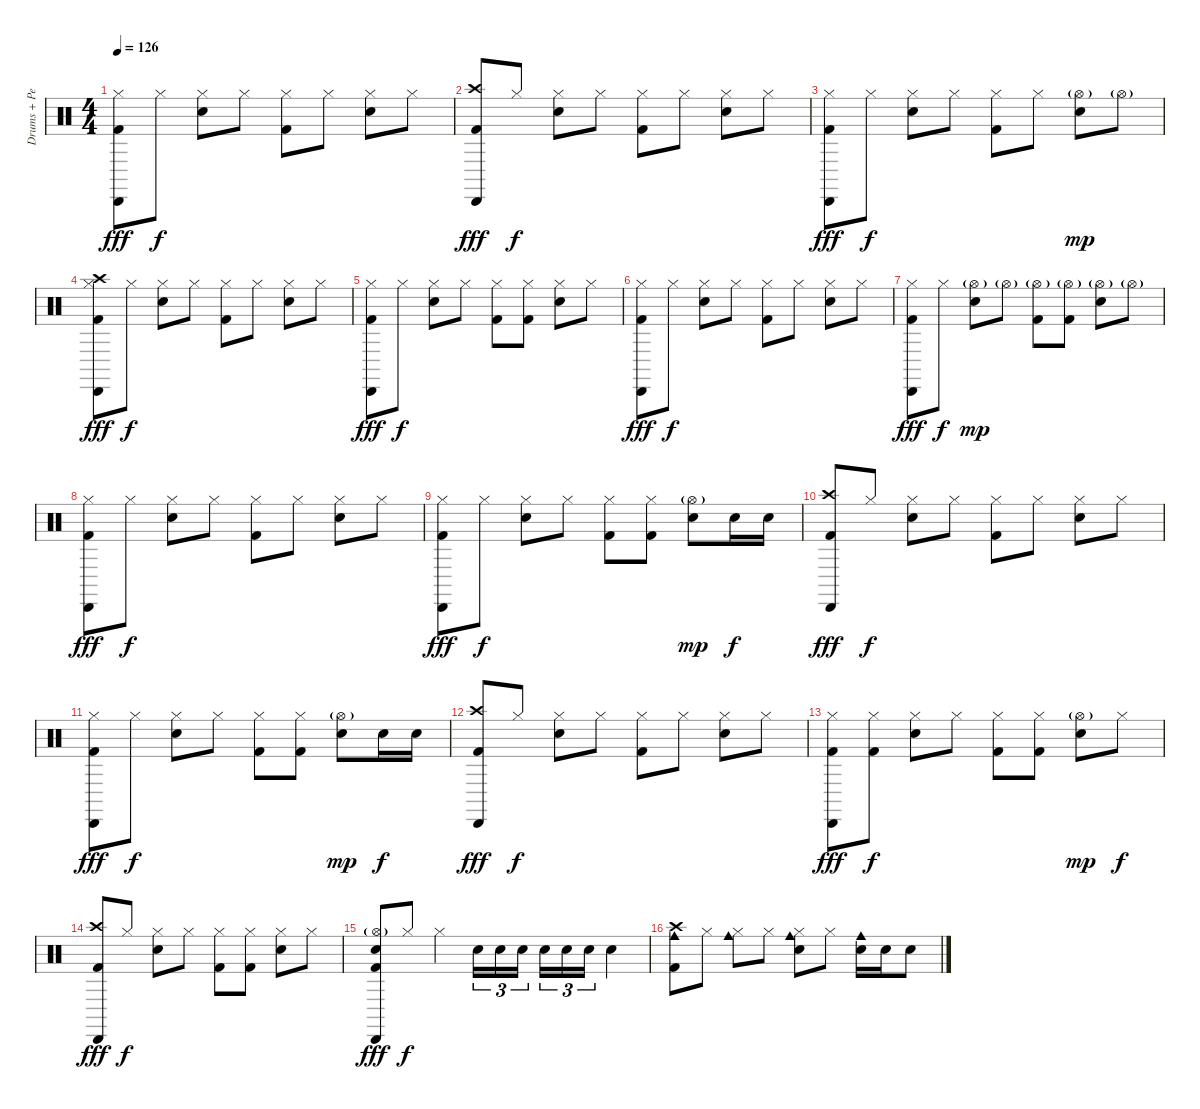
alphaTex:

\track ("Drums + Percussions" "Drums + Pe") {instrument percussion}
\staff {score}
\articulation defaults
\ts (4 4)
\tempo 126
\clef neutral
\ks c
("Hi-Hat (closed)" "Cabasa (hit)" "Kick (hit) 2").8{dy fff} "Hi-Hat (closed)".8{dy f} ("Hi-Hat (closed)" "Electric Snare (hit)").8 "Hi-Hat (closed)".8 ("Hi-Hat (closed)" "Kick (hit) 2").8 "Hi-Hat (closed)".8 ("Hi-Hat (closed)" "Electric Snare (hit)").8 "Hi-Hat (closed)".8 |
("Crash high (hit)" "Cabasa (hit)" "Kick (hit) 2").8{dy fff} "Hi-Hat (closed)".8{dy f} ("Hi-Hat (closed)" "Electric Snare (hit)").8 "Hi-Hat (closed)".8 ("Hi-Hat (closed)" "Kick (hit) 2").8 "Hi-Hat (closed)".8 ("Hi-Hat (closed)" "Electric Snare (hit)").8 "Hi-Hat (closed)".8 |
("Hi-Hat (closed)" "Cabasa (hit)" "Kick (hit) 2").8{dy fff} "Hi-Hat (closed)".8{dy f} ("Hi-Hat (closed)" "Electric Snare (hit)").8 "Hi-Hat (closed)".8 ("Hi-Hat (closed)" "Kick (hit) 2").8 "Hi-Hat (closed)".8 ("Hi-Hat (open)"{g} "Electric Snare (hit)").8{dy mp} "Hi-Hat (open)"{g}.8 |
("Hi-Hat (closed)" "Crash high (hit)" "Cabasa (hit)" "Kick (hit) 2").8{dy fff} "Hi-Hat (closed)".8{dy f} ("Hi-Hat (closed)" "Electric Snare (hit)").8 "Hi-Hat (closed)".8 ("Hi-Hat (closed)" "Kick (hit) 2").8 "Hi-Hat (closed)".8 ("Hi-Hat (closed)" "Electric Snare (hit)").8 "Hi-Hat (closed)".8 |
("Hi-Hat (closed)" "Cabasa (hit)" "Kick (hit) 2").8{dy fff} "Hi-Hat (closed)".8{dy f} ("Hi-Hat (closed)" "Electric Snare (hit)").8 "Hi-Hat (closed)".8 ("Hi-Hat (closed)" "Kick (hit) 2").8 ("Hi-Hat (closed)" "Kick (hit) 2").8 ("Hi-Hat (closed)" "Electric Snare (hit)").8 "Hi-Hat (closed)".8 |
("Hi-Hat (closed)" "Cabasa (hit)" "Kick (hit) 2").8{dy fff} "Hi-Hat (closed)".8{dy f} ("Hi-Hat (closed)" "Electric Snare (hit)").8 "Hi-Hat (closed)".8 ("Hi-Hat (closed)" "Kick (hit) 2").8 "Hi-Hat (closed)".8 ("Hi-Hat (closed)" "Electric Snare (hit)").8 "Hi-Hat (closed)".8 |
("Hi-Hat (closed)" "Cabasa (hit)" "Kick (hit) 2").8{dy fff} "Hi-Hat (closed)".8{dy f} ("Hi-Hat (open)"{g} "Electric Snare (hit)").8{dy mp} "Hi-Hat (open)"{g}.8 ("Hi-Hat (open)"{g} "Kick (hit) 2").8 ("Hi-Hat (open)"{g} "Kick (hit) 2").8 ("Hi-Hat (open)"{g} "Electric Snare (hit)").8 "Hi-Hat (open)"{g}.8 |
("Hi-Hat (closed)" "Cabasa (hit)" "Kick (hit) 2").8{dy fff} "Hi-Hat (closed)".8{dy f} ("Hi-Hat (closed)" "Electric Snare (hit)").8 "Hi-Hat (closed)".8 ("Hi-Hat (closed)" "Kick (hit) 2").8 "Hi-Hat (closed)".8 ("Hi-Hat (closed)" "Electric Snare (hit)").8 "Hi-Hat (closed)".8 |
("Hi-Hat (closed)" "Cabasa (hit)" "Kick (hit) 2").8{dy fff} "Hi-Hat (closed)".8{dy f} ("Hi-Hat (closed)" "Electric Snare (hit)").8 "Hi-Hat (closed)".8 ("Hi-Hat (closed)" "Kick (hit) 2").8 ("Hi-Hat (closed)" "Kick (hit) 2").8 ("Hi-Hat (open)"{g} "Electric Snare (hit)").8{dy mp} "Electric Snare (hit)".16{dy f} "Electric Snare (hit)".16 |
("Crash high (hit)" "Cabasa (hit)" "Kick (hit) 2").8{dy fff} "Hi-Hat (closed)".8{dy f} ("Hi-Hat (closed)" "Electric Snare (hit)").8 "Hi-Hat (closed)".8 ("Hi-Hat (closed)" "Kick (hit) 2").8 "Hi-Hat (closed)".8 ("Hi-Hat (closed)" "Electric Snare (hit)").8 "Hi-Hat (closed)".8 |
("Hi-Hat (closed)" "Cabasa (hit)" "Kick (hit) 2").8{dy fff} "Hi-Hat (closed)".8{dy f} ("Hi-Hat (closed)" "Electric Snare (hit)").8 "Hi-Hat (closed)".8 ("Hi-Hat (closed)" "Kick (hit) 2").8 ("Hi-Hat (closed)" "Kick (hit) 2").8 ("Hi-Hat (open)"{g} "Electric Snare (hit)").8{dy mp} "Electric Snare (hit)".16{dy f} "Electric Snare (hit)".16 |
("Crash high (hit)" "Cabasa (hit)" "Kick (hit) 2").8{dy fff} "Hi-Hat (closed)".8{dy f} ("Hi-Hat (closed)" "Electric Snare (hit)").8 "Hi-Hat (closed)".8 ("Hi-Hat (closed)" "Kick (hit) 2").8 "Hi-Hat (closed)".8 ("Hi-Hat (closed)" "Electric Snare (hit)").8 "Hi-Hat (closed)".8 |
("Hi-Hat (closed)" "Cabasa (hit)" "Kick (hit) 2").8{dy fff} ("Hi-Hat (closed)" "Kick (hit) 2").8{dy f} ("Hi-Hat (closed)" "Electric Snare (hit)").8 "Hi-Hat (closed)".8 ("Hi-Hat (closed)" "Kick (hit) 2").8 ("Hi-Hat (closed)" "Kick (hit) 2").8 ("Hi-Hat (open)"{g} "Electric Snare (hit)").8{dy mp} "Hi-Hat (closed)".8{dy f} |
("Crash high (hit)" "Cabasa (hit)" "Kick (hit) 2").8{dy fff} "Hi-Hat (closed)".8{dy f} ("Hi-Hat (closed)" "Electric Snare (hit)").8 "Hi-Hat (closed)".8 ("Hi-Hat (closed)" "Kick (hit) 2").8 ("Hi-Hat (closed)" "Kick (hit) 2").8 ("Hi-Hat (closed)" "Electric Snare (hit)").8 "Hi-Hat (closed)".8 |
("Hi-Hat (open)"{g} "Cabasa (hit)" "Electric Snare (hit)" "Kick (hit) 2").8{dy fff} "Hi-Hat (closed)".8{dy f} "Hi-Hat (closed)".4 "Electric Snare (hit)".16{tu (3 2)} "Electric Snare (hit)".16{tu (3 2)} "Electric Snare (hit)".16{tu (3 2)} "Electric Snare (hit)".16{tu (3 2)} "Electric Snare (hit)".16{tu (3 2)} "Electric Snare (hit)".16{tu (3 2)} "Electric Snare (hit)".4 |
("Crash high (hit)" "Cowbell medium (hit)" "Kick (hit) 2").8 "Hi-Hat (closed)".8 ("Hi-Hat (closed)" "Cowbell medium (hit)").8 "Hi-Hat (closed)".8 ("Hi-Hat (closed)" "Cowbell medium (hit)" "Electric Snare (hit)").8 "Hi-Hat (closed)".8 ("Cowbell medium (hit)" "Electric Snare (hit)").16 "Electric Snare (hit)".16 "Electric Snare (hit)".8
